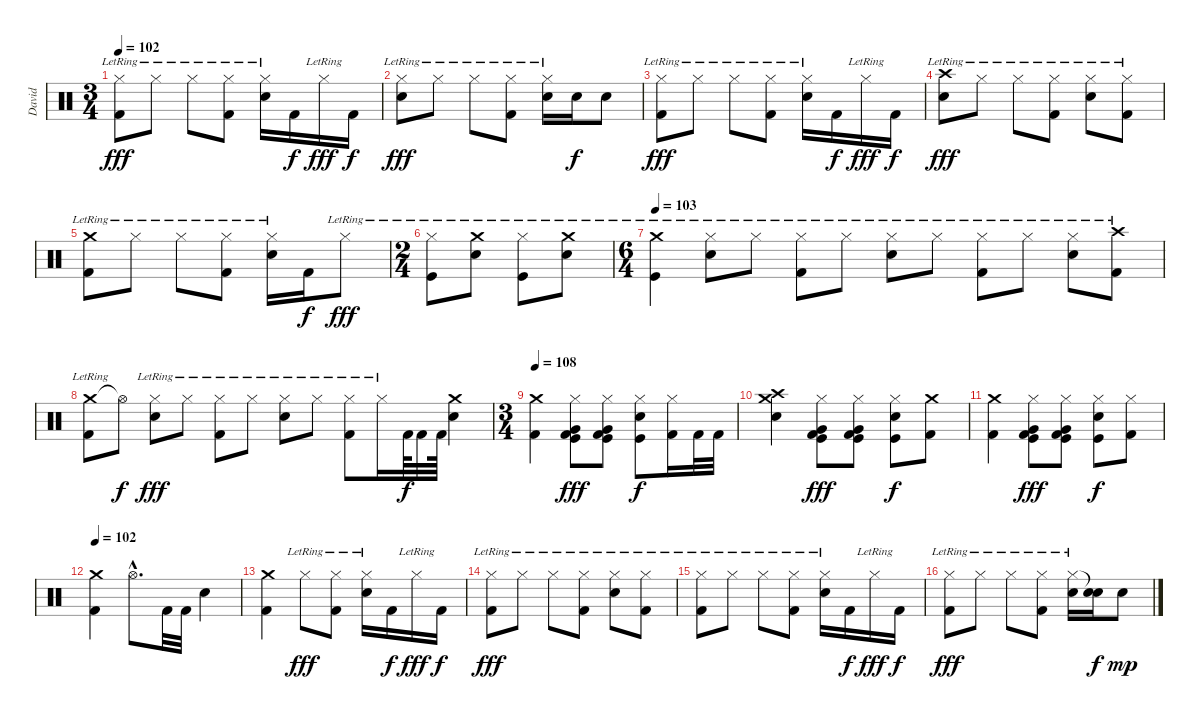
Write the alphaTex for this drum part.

\track ("David" "David") {instrument percussion}
\staff {score}
\articulation defaults
\ts (3 4)
\tempo 102
\clef neutral
\ks c
("Hi-Hat (closed)"{lr} "Kick (hit) 2").8{dy fff} "Hi-Hat (closed)"{lr}.8 "Hi-Hat (closed)"{lr}.8 ("Hi-Hat (closed)"{lr} "Kick (hit) 2").8 ("Hi-Hat (closed)"{lr} "Snare (hit) 2").16 "Kick (hit) 2".16{dy f} "Hi-Hat (closed)"{lr}.16{dy fff} "Kick (hit) 2".16{dy f} |
("Hi-Hat (closed)"{lr} "Snare (hit) 2").8{dy fff} "Hi-Hat (closed)"{lr}.8 "Hi-Hat (closed)"{lr}.8 ("Hi-Hat (closed)"{lr} "Kick (hit) 2").8 ("Hi-Hat (closed)"{lr} "Snare (hit) 2").16 "Snare (hit) 2".16{dy f} "Snare (hit) 2".8 |
("Hi-Hat (closed)"{lr} "Kick (hit) 2").8{dy fff} "Hi-Hat (closed)"{lr}.8 "Hi-Hat (closed)"{lr}.8 ("Hi-Hat (closed)"{lr} "Kick (hit) 2").8 ("Hi-Hat (closed)"{lr} "Snare (hit) 2").16 "Kick (hit) 2".16{dy f} "Hi-Hat (closed)"{lr}.16{dy fff} "Kick (hit) 2".16{dy f} |
("Crash high (hit)"{lr} "Snare (hit) 2").8{dy fff} "Hi-Hat (closed)"{lr}.8 "Hi-Hat (closed)"{lr}.8 ("Hi-Hat (closed)"{lr} "Kick (hit) 2").8 ("Hi-Hat (closed)"{lr} "Snare (hit) 2").8 ("Hi-Hat (closed)"{lr} "Kick (hit) 2").8 |
("Crash medium (hit)"{lr} "Kick (hit) 2").8 "Hi-Hat (closed)"{lr}.8 "Hi-Hat (closed)"{lr}.8 ("Hi-Hat (closed)"{lr} "Kick (hit) 2").8 ("Hi-Hat (closed)"{lr} "Snare (hit) 2").16 "Kick (hit) 2".16{dy f} "Hi-Hat (closed)"{lr}.8{dy fff} |
\ts (2 4)
("Hi-Hat (closed)"{lr} "Kick (hit)").8 ("Crash medium (hit)"{lr} "Snare (hit) 2").8 ("Hi-Hat (closed)"{lr} "Kick (hit)").8 ("Crash medium (hit)"{lr} "Snare (hit) 2").8 |
\ts (6 4)
\tempo 103
("Crash medium (hit)"{lr} "Kick (hit)").4 ("Hi-Hat (closed)"{lr} "Snare (hit) 2").8 "Hi-Hat (closed)"{lr}.8 ("Hi-Hat (closed)"{lr} "Kick (hit) 2").8 "Hi-Hat (closed)"{lr}.8 ("Hi-Hat (closed)"{lr} "Snare (hit) 2").8 "Hi-Hat (closed)"{lr}.8 ("Hi-Hat (closed)"{lr} "Kick (hit) 2").8 "Hi-Hat (closed)"{lr}.8 ("Hi-Hat (closed)"{lr} "Snare (hit) 2").8 ("Crash high (hit)"{lr} "Kick (hit) 2").8 |
("Crash medium (hit)"{lr} "Kick (hit) 2").8 "Hi-Hat (open)"{t}.8{dy f} ("Hi-Hat (closed)"{lr} "Snare (hit) 2").8{dy fff} "Hi-Hat (closed)"{lr}.8 ("Hi-Hat (closed)"{lr} "Kick (hit) 2").8 "Hi-Hat (closed)"{lr}.8 ("Hi-Hat (closed)"{lr} "Snare (hit) 2").8 "Hi-Hat (closed)"{lr}.8 ("Hi-Hat (closed)"{lr} "Kick (hit) 2").8 "Hi-Hat (closed)"{lr}.16 "Kick (hit) 2".64{dy f} "Kick (hit) 2".32 "Kick (hit) 2".64 ("Crash medium (hit)" "Snare (hit) 2").4 |
\ts (3 4)
\tempo 108
("Crash medium (hit)" "Kick (hit) 2").4 ("Hi-Hat (closed)" "Kick (hit)" "Very Low Tom (hit)" "Kick (hit) 2").8{dy fff} ("Hi-Hat (closed)" "Kick (hit)" "Very Low Tom (hit)" "Kick (hit) 2").8 ("Hi-Hat (closed)" "Snare (hit) 2" "Kick (hit)").8{dy f} ("Hi-Hat (closed)" "Kick (hit) 2").16 "Kick (hit) 2".32 "Kick (hit) 2".32 |
("Crash medium (hit)" "Snare (hit) 2" "Crash high (hit)").4 ("Hi-Hat (closed)" "Kick (hit)" "Very Low Tom (hit)" "Kick (hit) 2").8{dy fff} ("Hi-Hat (closed)" "Kick (hit)" "Very Low Tom (hit)" "Kick (hit) 2").8 ("Hi-Hat (closed)" "Snare (hit) 2" "Kick (hit)").8{dy f} ("Crash medium (hit)" "Kick (hit) 2").8 |
("Crash medium (hit)" "Kick (hit) 2").4 ("Hi-Hat (closed)" "Kick (hit)" "Very Low Tom (hit)" "Kick (hit) 2").8{dy fff} ("Hi-Hat (closed)" "Kick (hit)" "Very Low Tom (hit)" "Kick (hit) 2").8 ("Hi-Hat (closed)" "Snare (hit) 2" "Kick (hit)").8{dy f} ("Hi-Hat (closed)" "Kick (hit) 2").8 |
\tempo 102
("Crash medium (hit)" "Kick (hit) 2").4 "Hi-Hat (open)"{hac}.8{d} "Kick (hit) 2".32 "Kick (hit) 2".32 "Snare (hit) 2".4 |
("Crash medium (hit)" "Kick (hit) 2").4 "Hi-Hat (closed)"{lr}.8{dy fff} ("Hi-Hat (closed)"{lr} "Kick (hit) 2").8 ("Hi-Hat (closed)"{lr} "Snare (hit) 2").16 "Kick (hit) 2".16{dy f} "Hi-Hat (closed)"{lr}.16{dy fff} "Kick (hit) 2".16{dy f} |
("Hi-Hat (closed)"{lr} "Kick (hit) 2").8{dy fff} "Hi-Hat (closed)"{lr}.8 "Hi-Hat (closed)"{lr}.8 ("Hi-Hat (closed)"{lr} "Kick (hit) 2").8 ("Hi-Hat (closed)"{lr} "Snare (hit) 2").8 ("Hi-Hat (closed)"{lr} "Kick (hit) 2").8 |
("Hi-Hat (closed)"{lr} "Kick (hit) 2").8 "Hi-Hat (closed)"{lr}.8 "Hi-Hat (closed)"{lr}.8 ("Hi-Hat (closed)"{lr} "Kick (hit) 2").8 ("Hi-Hat (closed)"{lr} "Snare (hit) 2").16 "Kick (hit) 2".16{dy f} "Hi-Hat (closed)"{lr}.16{dy fff} "Kick (hit) 2".16{dy f} |
("Hi-Hat (closed)"{lr} "Kick (hit) 2").8{dy fff} "Hi-Hat (closed)"{lr}.8 "Hi-Hat (closed)"{lr}.8 ("Hi-Hat (closed)"{lr} "Kick (hit) 2").8 ("Hi-Hat (closed)"{lr} "Snare (hit) 2").16 ("Snare (hit)"{t} "Snare (hit) 2").16{dy f} "Snare (hit) 2".8{dy mp}
